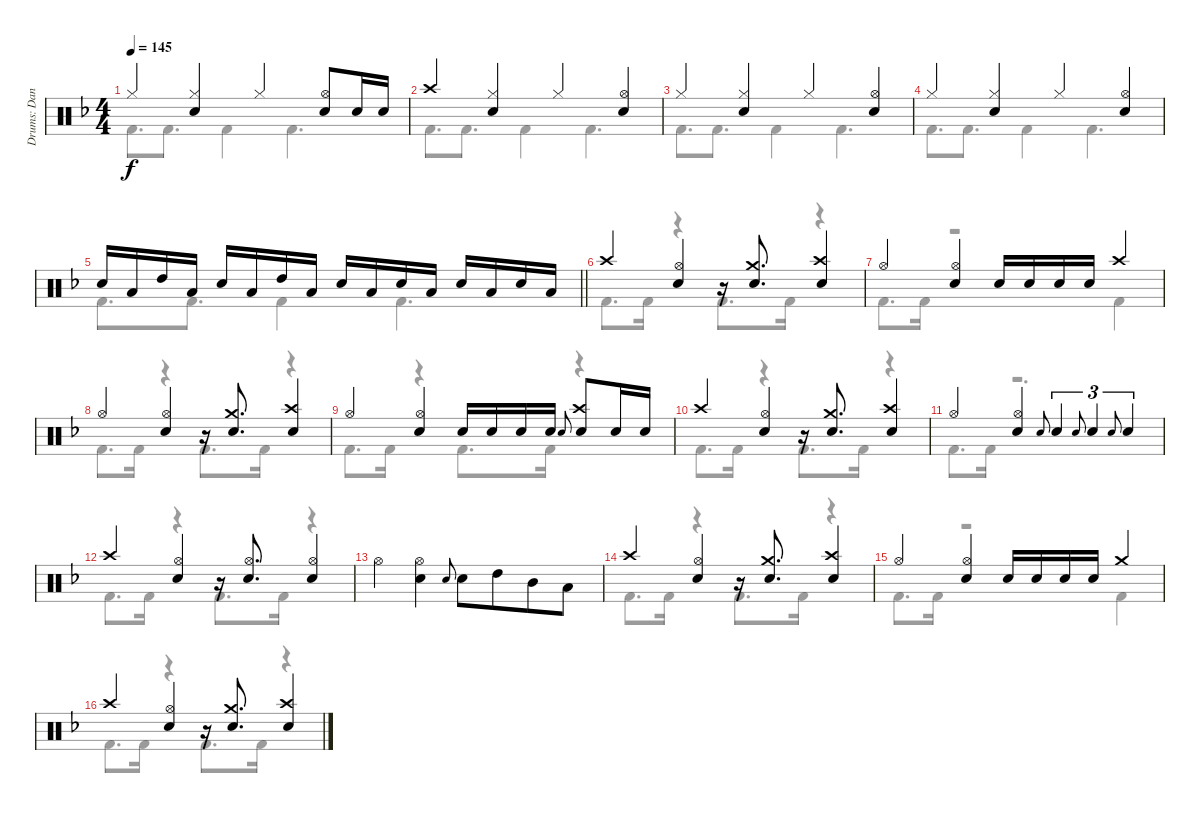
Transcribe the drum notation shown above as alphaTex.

\track ("Drums: Dana" "Drums: Dan") {instrument percussion}
\staff {score}
\articulation defaults
\voice
\ts (4 4)
\tempo 145
\clef neutral
\ks f "Hi-Hat (closed)".4{dy f}
("Hi-Hat (closed)" "Snare (hit) 2").4 "Hi-Hat (closed)".4 ("Hi-Hat (open)" "Snare (hit) 2").8 "Snare (hit) 2".16 "Snare (hit) 2".16 |
"Crash high (hit)".4 ("Hi-Hat (closed)" "Snare (hit) 2").4 "Hi-Hat (closed)".4 ("Hi-Hat (open)" "Snare (hit) 2").4 |
"Hi-Hat (closed)".4 ("Hi-Hat (closed)" "Snare (hit) 2").4 "Hi-Hat (closed)".4 ("Hi-Hat (open)" "Snare (hit) 2").4 |
"Hi-Hat (closed)".4 ("Hi-Hat (closed)" "Snare (hit) 2").4 "Hi-Hat (closed)".4 ("Hi-Hat (open)" "Snare (hit) 2").4 |
\barLineRight lightlight "Snare (hit) 2".16 "Low Tom (hit)".16 "High Tom (hit)".16 "Low Tom (hit)".16 "Snare (hit) 2".16 "Low Tom (hit)".16 "High Tom (hit)".16 "Low Tom (hit)".16 "Snare (hit) 2".16 "Low Tom (hit)".16 "Snare (hit) 2".16 "Low Tom (hit)".16 "Snare (hit) 2".16 "Low Tom (hit)".16 "Snare (hit) 2".16 "Low Tom (hit)".16
|
"Crash high (hit)".4 ("Hi-Hat (open)" "Snare (hit) 2").4 r.16 ("Crash medium (hit)" "Snare (hit) 2").8{d} ("Crash high (hit)" "Snare (hit) 2").4 |
"Hi-Hat (open)".4 ("Hi-Hat (open)" "Snare (hit) 2").4 "Snare (hit) 2".16 "Snare (hit) 2".16 "Snare (hit) 2".16 "Snare (hit) 2".16 "Crash high (hit)".4 |
"Hi-Hat (open)".4 ("Hi-Hat (open)" "Snare (hit) 2").4 r.16 ("Crash medium (hit)" "Snare (hit) 2").8{d} ("Crash high (hit)" "Snare (hit) 2").4 |
"Hi-Hat (open)".4 ("Hi-Hat (open)" "Snare (hit) 2").4 "Snare (hit) 2".16 "Snare (hit) 2".16 "Snare (hit) 2".16 "Snare (hit) 2".16 "Electric Snare (hit)".8{gr onbeat} ("Crash high (hit)" "Snare (hit) 2").8 "Snare (hit) 2".16 "Snare (hit) 2".16 |
"Crash high (hit)".4 ("Hi-Hat (open)" "Snare (hit) 2").4 r.16 ("Crash medium (hit)" "Snare (hit) 2").8{d} ("Crash high (hit)" "Snare (hit) 2").4 |
"Hi-Hat (open)".4 ("Hi-Hat (open)" "Snare (hit) 2").4 "Electric Snare (hit)".8{gr onbeat} "Snare (hit) 2".4{tu (3 2)} "Electric Snare (hit)".8{gr onbeat} "Snare (hit) 2".4{tu (3 2)} "Electric Snare (hit)".8{gr onbeat} "Snare (hit) 2".4{tu (3 2)} |
"Crash high (hit)".4 ("Hi-Hat (open)" "Snare (hit) 2").4 r.16 ("Hi-Hat (open)" "Snare (hit) 2").8{d} ("Hi-Hat (open)" "Snare (hit) 2").4 |
"Hi-Hat (open)".4 ("Hi-Hat (open)" "Snare (hit) 2").4 "Electric Snare (hit)".8{gr onbeat} "Snare (hit) 2".8 "High Tom (hit)".8{beam merge} "Mid Tom (hit)".8 "Low Tom (hit)".8 |
"Crash high (hit)".4 ("Hi-Hat (open)" "Snare (hit) 2").4 r.16 ("Crash medium (hit)" "Snare (hit) 2").8{d} ("Crash high (hit)" "Snare (hit) 2").4 |
"Hi-Hat (open)".4 ("Hi-Hat (open)" "Snare (hit) 2").4 "Snare (hit) 2".16 "Snare (hit) 2".16 "Snare (hit) 2".16 "Snare (hit) 2".16 "Crash medium (hit)".4 |
"Crash high (hit)".4 ("Hi-Hat (open)" "Snare (hit) 2").4 r.16 ("Crash medium (hit)" "Snare (hit) 2").8{d} ("Crash high (hit)" "Snare (hit) 2").4
\voice
\clef neutral
\ottava regular
\simile none
\ks f "Kick (hit) 2".8{d dy f} "Kick (hit) 2".8{d} "Kick (hit) 2".4 "Kick (hit) 2".4{d}
|
"Kick (hit) 2".8{d} "Kick (hit) 2".8{d} "Kick (hit) 2".4 "Kick (hit) 2".4{d} |
"Kick (hit) 2".8{d} "Kick (hit) 2".8{d} "Kick (hit) 2".4 "Kick (hit) 2".4{d} |
"Kick (hit) 2".8{d} "Kick (hit) 2".8{d} "Kick (hit) 2".4 "Kick (hit) 2".4{d} |
\barLineRight lightlight "Kick (hit) 2".8{d} "Kick (hit) 2".8{d} "Kick (hit) 2".4 "Kick (hit) 2".4{d}
|
"Kick (hit) 2".8{d} "Kick (hit) 2".16 r.4 "Kick (hit) 2".8{d} "Kick (hit) 2".16 r.4 |
"Kick (hit) 2".8{d} "Kick (hit) 2".16 r.2 "Kick (hit) 2".4 |
"Kick (hit) 2".8{d} "Kick (hit) 2".16 r.4 "Kick (hit) 2".8{d} "Kick (hit) 2".16 r.4 |
"Kick (hit) 2".8{d} "Kick (hit) 2".16 r.4 "Kick (hit) 2".8{d} "Kick (hit) 2".16 r.4 |
"Kick (hit) 2".8{d} "Kick (hit) 2".16 r.4 "Kick (hit) 2".8{d} "Kick (hit) 2".16 r.4 |
"Kick (hit) 2".8{d} "Kick (hit) 2".16 r.2{d} |
"Kick (hit) 2".8{d} "Kick (hit) 2".16 r.4 "Kick (hit) 2".8{d} "Kick (hit) 2".16 r.4 |
|
"Kick (hit) 2".8{d} "Kick (hit) 2".16 r.4 "Kick (hit) 2".8{d} "Kick (hit) 2".16 r.4 |
"Kick (hit) 2".8{d} "Kick (hit) 2".16 r.2 "Kick (hit) 2".4 |
"Kick (hit) 2".8{d} "Kick (hit) 2".16 r.4 "Kick (hit) 2".8{d} "Kick (hit) 2".16 r.4
